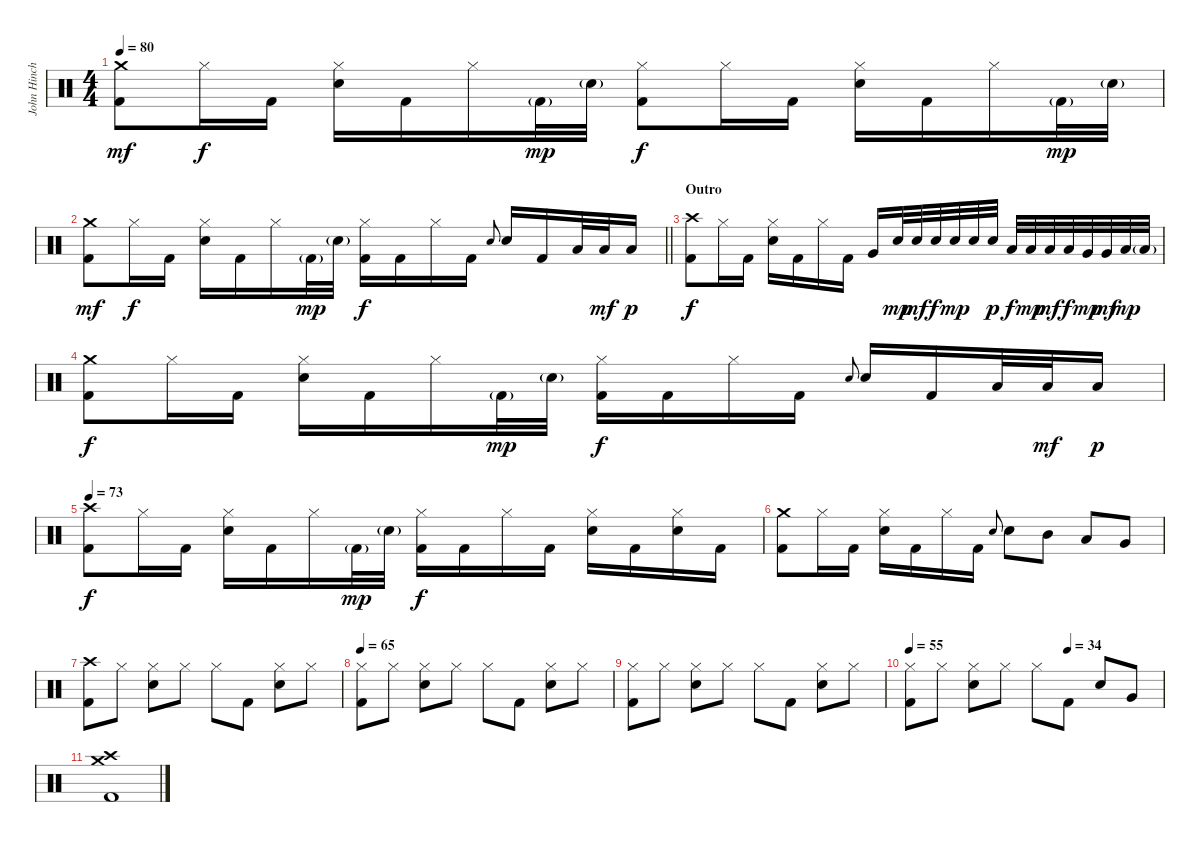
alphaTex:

\track ("John Hinch" "John Hinch") {instrument percussion}
\staff {score}
\articulation defaults
\ts (4 4)
\tempo 80
\clef neutral
\ks aminor
("Crash medium (hit)" "Kick (hit) 2").8{dy mf} "Hi-Hat (closed)".16{dy f} "Kick (hit) 2".16 ("Hi-Hat (closed)" "Electric Snare (hit)").16 "Kick (hit) 2".16 "Hi-Hat (closed)".16 "Kick (hit) 2"{g}.32{dy mp} "Electric Snare (hit)"{g}.32 ("Hi-Hat (closed)" "Kick (hit) 2").8{dy f} "Hi-Hat (closed)".16 "Kick (hit) 2".16 ("Hi-Hat (closed)" "Electric Snare (hit)").16 "Kick (hit) 2".16 "Hi-Hat (closed)".16 "Kick (hit) 2"{g}.32{dy mp} "Electric Snare (hit)"{g}.32 |
\barLineRight lightlight
("Crash medium (hit)" "Kick (hit) 2").8{dy mf} "Hi-Hat (closed)".16{dy f} "Kick (hit) 2".16 ("Hi-Hat (closed)" "Electric Snare (hit)").16 "Kick (hit) 2".16 "Hi-Hat (closed)".16 "Kick (hit) 2"{g}.32{dy mp} "Electric Snare (hit)"{g}.32 ("Hi-Hat (closed)" "Kick (hit) 2").16{dy f} "Kick (hit) 2".16 "Hi-Hat (closed)".16 "Kick (hit) 2".16 "Electric Snare (hit)".8{gr onbeat} "Electric Snare (hit)".16 "Kick (hit) 2".16 "Low Tom (hit)".32 "Low Tom (hit)".32{dy mf} "Low Tom (hit)".16{dy p} |
\section ("" "Outro")
("Crash high (hit)" "Kick (hit) 2").8{dy f} "Hi-Hat (closed)".16 "Kick (hit) 2".16 ("Hi-Hat (closed)" "Electric Snare (hit)").16 "Kick (hit) 2".16 "Hi-Hat (closed)".16 "Kick (hit) 2".16 "Very Low Tom (hit)".16 "Electric Snare (hit)".32{dy mp} "Electric Snare (hit)".32{dy mf} "Electric Snare (hit)".32{dy f} "Electric Snare (hit)".32{dy mp} "Electric Snare (hit)".32 "Electric Snare (hit)".32{dy p} "Low Tom (hit)".32{dy f} "Low Tom (hit)".32{dy mp} "Low Tom (hit)".32{dy mf} "Low Tom (hit)".32{dy f} "Very Low Tom (hit)".32{dy mp} "Very Low Tom (hit)".32{dy mf} "Low Floor Tom (hit)".32{dy mp} "Low Floor Tom (hit)"{g}.32 |
("Crash medium (hit)" "Kick (hit) 2").8{dy f} "Hi-Hat (closed)".16 "Kick (hit) 2".16 ("Hi-Hat (closed)" "Electric Snare (hit)").16 "Kick (hit) 2".16 "Hi-Hat (closed)".16 "Kick (hit) 2"{g}.32{dy mp} "Electric Snare (hit)"{g}.32 ("Hi-Hat (closed)" "Kick (hit) 2").16{dy f} "Kick (hit) 2".16 "Hi-Hat (closed)".16 "Kick (hit) 2".16 "Electric Snare (hit)".8{gr onbeat} "Electric Snare (hit)".16 "Kick (hit) 2".16 "Low Tom (hit)".32 "Low Tom (hit)".32{dy mf} "Low Tom (hit)".16{dy p} |
\tempo 73
("Crash high (hit)" "Kick (hit) 2").8{dy f} "Hi-Hat (closed)".16 "Kick (hit) 2".16 ("Hi-Hat (closed)" "Electric Snare (hit)").16 "Kick (hit) 2".16 "Hi-Hat (closed)".16 "Kick (hit) 2"{g}.32{dy mp} "Electric Snare (hit)"{g}.32 ("Hi-Hat (closed)" "Kick (hit) 2").16{dy f} "Kick (hit) 2".16 "Hi-Hat (closed)".16 "Kick (hit) 2".16 ("Hi-Hat (closed)" "Electric Snare (hit)").16 "Kick (hit) 2".16 ("Hi-Hat (closed)" "Electric Snare (hit)").16 "Kick (hit) 2".16 |
("Crash medium (hit)" "Kick (hit) 2").8 "Hi-Hat (closed)".16 "Kick (hit) 2".16 ("Hi-Hat (closed)" "Electric Snare (hit)").16 "Kick (hit) 2".16 "Hi-Hat (closed)".16 "Kick (hit) 2".16 "Electric Snare (hit)".8{gr onbeat} "Electric Snare (hit)".8 "Mid Tom (hit)".8 "Low Tom (hit)".8 "Very Low Tom (hit)".8 |
("Crash high (hit)" "Kick (hit) 2").8 "Hi-Hat (closed)".8 ("Hi-Hat (closed)" "Electric Snare (hit)").8 "Hi-Hat (closed)".8 "Hi-Hat (closed)".8 "Kick (hit) 2".8 ("Hi-Hat (closed)" "Electric Snare (hit)").8 "Hi-Hat (closed)".8 |
\tempo 65
("Hi-Hat (closed)" "Kick (hit) 2").8 "Hi-Hat (closed)".8 ("Hi-Hat (closed)" "Electric Snare (hit)").8 "Hi-Hat (closed)".8 "Hi-Hat (closed)".8 "Kick (hit) 2".8 ("Hi-Hat (closed)" "Electric Snare (hit)").8 "Hi-Hat (closed)".8 |
("Hi-Hat (closed)" "Kick (hit) 2").8 "Hi-Hat (closed)".8 ("Hi-Hat (closed)" "Electric Snare (hit)").8 "Hi-Hat (closed)".8 "Hi-Hat (closed)".8 "Kick (hit) 2".8 ("Hi-Hat (closed)" "Electric Snare (hit)").8 "Hi-Hat (closed)".8 |
\tempo 55
\tempo (34 0.625)
("Hi-Hat (closed)" "Kick (hit) 2").8 "Hi-Hat (closed)".8 ("Hi-Hat (closed)" "Electric Snare (hit)").8 "Hi-Hat (closed)".8 "Hi-Hat (closed)".8 "Kick (hit) 2".8 "Electric Snare (hit)".8 "Very Low Tom (hit)".8 |
("Crash medium (hit)" "Crash high (hit)" "Kick (hit) 2").1{volume 0}
